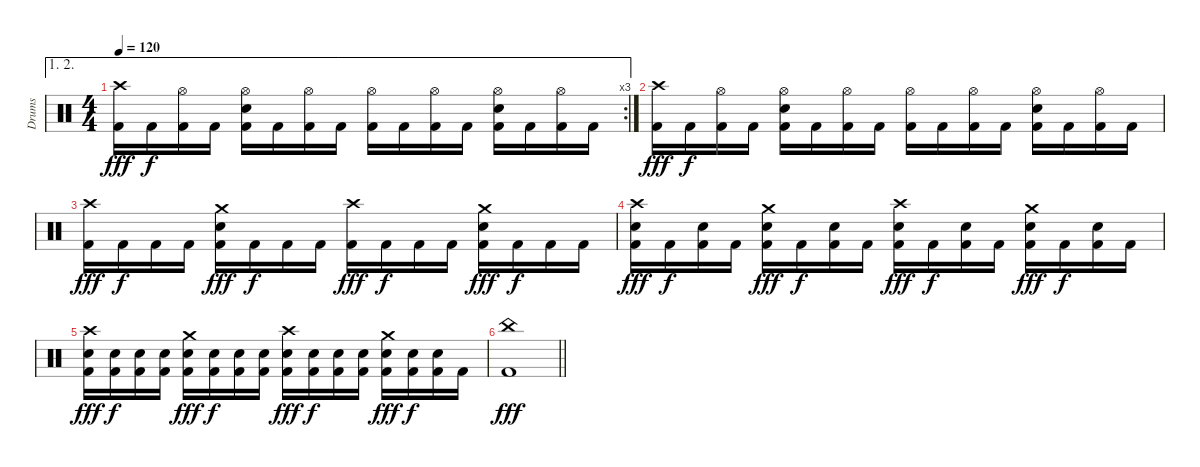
\track ("Drums" "Drums") {instrument percussion}
\staff {score}
\articulation defaults
\ae (1 2)
\rc 3
\ts (4 4)
\tempo 120
\clef neutral
\ks c
("Crash high (hit)" "Kick (hit) 2").16{dy fff} "Kick (hit) 2".16{dy f} ("Hi-Hat (open)" "Kick (hit) 2").16 "Kick (hit) 2".16 ("Hi-Hat (open)" "Electric Snare (hit)" "Kick (hit) 2").16 "Kick (hit) 2".16 ("Hi-Hat (open)" "Kick (hit) 2").16 "Kick (hit) 2".16 ("Hi-Hat (open)" "Kick (hit) 2").16 "Kick (hit) 2".16 ("Hi-Hat (open)" "Kick (hit) 2").16 "Kick (hit) 2".16 ("Hi-Hat (open)" "Electric Snare (hit)" "Kick (hit) 2").16 "Kick (hit) 2".16 ("Hi-Hat (open)" "Kick (hit) 2").16 "Kick (hit) 2".16 |
("Crash high (hit)" "Kick (hit) 2").16{dy fff} "Kick (hit) 2".16{dy f} ("Hi-Hat (open)" "Kick (hit) 2").16 "Kick (hit) 2".16 ("Hi-Hat (open)" "Electric Snare (hit)" "Kick (hit) 2").16 "Kick (hit) 2".16 ("Hi-Hat (open)" "Kick (hit) 2").16 "Kick (hit) 2".16 ("Hi-Hat (open)" "Kick (hit) 2").16 "Kick (hit) 2".16 ("Hi-Hat (open)" "Kick (hit) 2").16 "Kick (hit) 2".16 ("Hi-Hat (open)" "Electric Snare (hit)" "Kick (hit) 2").16 "Kick (hit) 2".16 ("Hi-Hat (open)" "Kick (hit) 2").16 "Kick (hit) 2".16 |
("Crash high (hit)" "Kick (hit) 2").16{dy fff} "Kick (hit) 2".16{dy f} "Kick (hit) 2".16 "Kick (hit) 2".16 ("Crash medium (hit)" "Electric Snare (hit)" "Kick (hit) 2").16{dy fff} "Kick (hit) 2".16{dy f} "Kick (hit) 2".16 "Kick (hit) 2".16 ("Crash high (hit)" "Kick (hit) 2").16{dy fff} "Kick (hit) 2".16{dy f} "Kick (hit) 2".16 "Kick (hit) 2".16 ("Crash medium (hit)" "Electric Snare (hit)" "Kick (hit) 2").16{dy fff} "Kick (hit) 2".16{dy f} "Kick (hit) 2".16 "Kick (hit) 2".16 |
("Crash high (hit)" "Electric Snare (hit)" "Kick (hit) 2").16{dy fff} "Kick (hit) 2".16{dy f} ("Electric Snare (hit)" "Kick (hit) 2").16 "Kick (hit) 2".16 ("Crash medium (hit)" "Electric Snare (hit)" "Kick (hit) 2").16{dy fff} "Kick (hit) 2".16{dy f} ("Electric Snare (hit)" "Kick (hit) 2").16 "Kick (hit) 2".16 ("Crash high (hit)" "Electric Snare (hit)" "Kick (hit) 2").16{dy fff} "Kick (hit) 2".16{dy f} ("Electric Snare (hit)" "Kick (hit) 2").16 "Kick (hit) 2".16 ("Crash medium (hit)" "Electric Snare (hit)" "Kick (hit) 2").16{dy fff} "Kick (hit) 2".16{dy f} ("Electric Snare (hit)" "Kick (hit) 2").16 "Kick (hit) 2".16 |
("Crash high (hit)" "Electric Snare (hit)" "Kick (hit) 2").16{dy fff} ("Electric Snare (hit)" "Kick (hit) 2").16{dy f} ("Electric Snare (hit)" "Kick (hit) 2").16 ("Electric Snare (hit)" "Kick (hit) 2").16 ("Crash medium (hit)" "Electric Snare (hit)" "Kick (hit) 2").16{dy fff} ("Electric Snare (hit)" "Kick (hit) 2").16{dy f} ("Electric Snare (hit)" "Kick (hit) 2").16 ("Electric Snare (hit)" "Kick (hit) 2").16 ("Crash high (hit)" "Electric Snare (hit)" "Kick (hit) 2").16{dy fff} ("Electric Snare (hit)" "Kick (hit) 2").16{dy f} ("Electric Snare (hit)" "Kick (hit) 2").16 ("Electric Snare (hit)" "Kick (hit) 2").16 ("Crash medium (hit)" "Electric Snare (hit)" "Kick (hit) 2").16{dy fff} ("Electric Snare (hit)" "Kick (hit) 2").16{dy f} ("Electric Snare (hit)" "Kick (hit) 2").16 "Kick (hit) 2".16 |
\barLineRight lightlight
("China (hit)" "Kick (hit) 2").1{dy fff}
